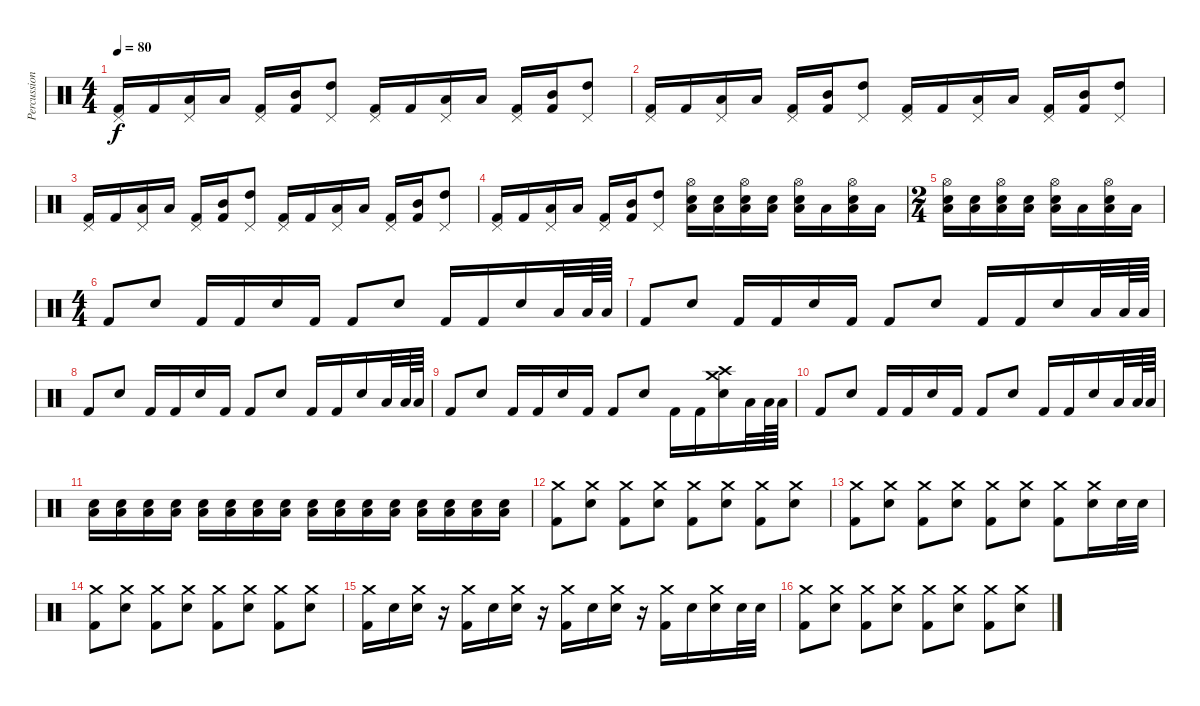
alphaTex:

\track ("Percussions" "Percussion") {instrument percussion}
\staff {score}
\articulation defaults
\ts (4 4)
\tempo 80
\clef neutral
\ks c
("Pedal Hi-Hat (hit)" "Kick (hit) 2").16{dy f} "Kick (hit) 2".16 ("Pedal Hi-Hat (hit)" "Low Tom (hit)").16 "Low Tom (hit)".16 ("Pedal Hi-Hat (hit)" "Kick (hit) 2").16 ("Mid Tom (hit)" "Kick (hit) 2").16 ("Pedal Hi-Hat (hit)" "High Tom (hit)").8 ("Pedal Hi-Hat (hit)" "Kick (hit) 2").16 "Kick (hit) 2".16 ("Pedal Hi-Hat (hit)" "Low Tom (hit)").16 "Low Tom (hit)".16 ("Pedal Hi-Hat (hit)" "Kick (hit) 2").16 ("Mid Tom (hit)" "Kick (hit) 2").16 ("Pedal Hi-Hat (hit)" "High Tom (hit)").8 |
("Pedal Hi-Hat (hit)" "Kick (hit) 2").16 "Kick (hit) 2".16 ("Pedal Hi-Hat (hit)" "Low Tom (hit)").16 "Low Tom (hit)".16 ("Pedal Hi-Hat (hit)" "Kick (hit) 2").16 ("Mid Tom (hit)" "Kick (hit) 2").16 ("Pedal Hi-Hat (hit)" "High Tom (hit)").8 ("Pedal Hi-Hat (hit)" "Kick (hit) 2").16 "Kick (hit) 2".16 ("Pedal Hi-Hat (hit)" "Low Tom (hit)").16 "Low Tom (hit)".16 ("Pedal Hi-Hat (hit)" "Kick (hit) 2").16 ("Mid Tom (hit)" "Kick (hit) 2").16 ("Pedal Hi-Hat (hit)" "High Tom (hit)").8 |
("Pedal Hi-Hat (hit)" "Kick (hit) 2").16 "Kick (hit) 2".16 ("Pedal Hi-Hat (hit)" "Low Tom (hit)").16 "Low Tom (hit)".16 ("Pedal Hi-Hat (hit)" "Kick (hit) 2").16 ("Mid Tom (hit)" "Kick (hit) 2").16 ("Pedal Hi-Hat (hit)" "High Tom (hit)").8 ("Pedal Hi-Hat (hit)" "Kick (hit) 2").16 "Kick (hit) 2".16 ("Pedal Hi-Hat (hit)" "Low Tom (hit)").16 "Low Tom (hit)".16 ("Pedal Hi-Hat (hit)" "Kick (hit) 2").16 ("Mid Tom (hit)" "Kick (hit) 2").16 ("Pedal Hi-Hat (hit)" "High Tom (hit)").8 |
("Pedal Hi-Hat (hit)" "Kick (hit) 2").16 "Kick (hit) 2".16 ("Pedal Hi-Hat (hit)" "Low Tom (hit)").16 "Low Tom (hit)".16 ("Pedal Hi-Hat (hit)" "Kick (hit) 2").16 ("Mid Tom (hit)" "Kick (hit) 2").16 ("Pedal Hi-Hat (hit)" "High Tom (hit)").8 ("Hi-Hat (open)" "Electric Snare (hit)" "Low Tom (hit)").16 ("Electric Snare (hit)" "Low Tom (hit)").16 ("Hi-Hat (open)" "Electric Snare (hit)" "Low Tom (hit)").16 ("Electric Snare (hit)" "Low Tom (hit)").16 ("Hi-Hat (open)" "Electric Snare (hit)" "Low Tom (hit)").16 "Low Tom (hit)".16 ("Hi-Hat (open)" "Electric Snare (hit)" "Low Tom (hit)").16 "Low Tom (hit)".16 |
\ts (2 4)
("Hi-Hat (open)" "Electric Snare (hit)" "Low Tom (hit)").16 ("Electric Snare (hit)" "Low Tom (hit)").16 ("Hi-Hat (open)" "Electric Snare (hit)" "Low Tom (hit)").16 ("Electric Snare (hit)" "Low Tom (hit)").16 ("Hi-Hat (open)" "Electric Snare (hit)" "Low Tom (hit)").16 "Low Tom (hit)".16 ("Hi-Hat (open)" "Electric Snare (hit)" "Low Tom (hit)").16 "Low Tom (hit)".16 |
\ts (4 4)
"Kick (hit) 2".8 "Electric Snare (hit)".8 "Kick (hit) 2".16 "Kick (hit) 2".16 "Electric Snare (hit)".16 "Kick (hit) 2".16 "Kick (hit) 2".8 "Electric Snare (hit)".8 "Kick (hit) 2".16 "Kick (hit) 2".16 "Electric Snare (hit)".16 "Low Tom (hit)".32 "Low Tom (hit)".64 "Low Tom (hit)".64 |
"Kick (hit) 2".8 "Electric Snare (hit)".8 "Kick (hit) 2".16 "Kick (hit) 2".16 "Electric Snare (hit)".16 "Kick (hit) 2".16 "Kick (hit) 2".8 "Electric Snare (hit)".8 "Kick (hit) 2".16 "Kick (hit) 2".16 "Electric Snare (hit)".16 "Low Tom (hit)".32 "Low Tom (hit)".64 "Low Tom (hit)".64 |
"Kick (hit) 2".8 "Electric Snare (hit)".8 "Kick (hit) 2".16 "Kick (hit) 2".16 "Electric Snare (hit)".16 "Kick (hit) 2".16 "Kick (hit) 2".8 "Electric Snare (hit)".8 "Kick (hit) 2".16 "Kick (hit) 2".16 "Electric Snare (hit)".16 "Low Tom (hit)".32 "Low Tom (hit)".64 "Low Tom (hit)".64 |
"Kick (hit) 2".8 "Electric Snare (hit)".8 "Kick (hit) 2".16 "Kick (hit) 2".16 "Electric Snare (hit)".16 "Kick (hit) 2".16 "Kick (hit) 2".8 "Electric Snare (hit)".8 "Kick (hit) 2".16 "Kick (hit) 2".16 ("Crash medium (hit)" "Crash high (hit)" "Electric Snare (hit)").16 "Low Tom (hit)".32 "Low Tom (hit)".64 "Low Tom (hit)".64 |
"Kick (hit) 2".8 "Electric Snare (hit)".8 "Kick (hit) 2".16 "Kick (hit) 2".16 "Electric Snare (hit)".16 "Kick (hit) 2".16 "Kick (hit) 2".8 "Electric Snare (hit)".8 "Kick (hit) 2".16 "Kick (hit) 2".16 "Electric Snare (hit)".16 "Low Tom (hit)".32 "Low Tom (hit)".64 "Low Tom (hit)".64 |
("Low Tom (hit)" "Electric Snare (hit)").16 ("Low Tom (hit)" "Electric Snare (hit)").16 ("Low Tom (hit)" "Electric Snare (hit)").16 ("Low Tom (hit)" "Electric Snare (hit)").16 ("Low Tom (hit)" "Electric Snare (hit)").16 ("Low Tom (hit)" "Electric Snare (hit)").16 ("Low Tom (hit)" "Electric Snare (hit)").16 ("Low Tom (hit)" "Electric Snare (hit)").16 ("Low Tom (hit)" "Electric Snare (hit)").16 ("Low Tom (hit)" "Electric Snare (hit)").16 ("Low Tom (hit)" "Electric Snare (hit)").16 ("Low Tom (hit)" "Electric Snare (hit)").16 ("Low Tom (hit)" "Electric Snare (hit)").16 ("Low Tom (hit)" "Electric Snare (hit)").16 ("Low Tom (hit)" "Electric Snare (hit)").16 ("Low Tom (hit)" "Electric Snare (hit)").16 |
("Crash medium (hit)" "Kick (hit) 2").8 ("Crash medium (hit)" "Electric Snare (hit)").8 ("Crash medium (hit)" "Kick (hit) 2").8 ("Crash medium (hit)" "Electric Snare (hit)").8 ("Crash medium (hit)" "Kick (hit) 2").8 ("Crash medium (hit)" "Electric Snare (hit)").8 ("Crash medium (hit)" "Kick (hit) 2").8 ("Crash medium (hit)" "Electric Snare (hit)").8 |
("Crash medium (hit)" "Kick (hit) 2").8 ("Crash medium (hit)" "Electric Snare (hit)").8 ("Crash medium (hit)" "Kick (hit) 2").8 ("Crash medium (hit)" "Electric Snare (hit)").8 ("Crash medium (hit)" "Kick (hit) 2").8 ("Crash medium (hit)" "Electric Snare (hit)").8 ("Crash medium (hit)" "Kick (hit) 2").8 ("Crash medium (hit)" "Electric Snare (hit)").16 "Electric Snare (hit)".32 "Electric Snare (hit)".32 |
("Crash medium (hit)" "Kick (hit) 2").8 ("Crash medium (hit)" "Electric Snare (hit)").8 ("Crash medium (hit)" "Kick (hit) 2").8 ("Crash medium (hit)" "Electric Snare (hit)").8 ("Crash medium (hit)" "Kick (hit) 2").8 ("Crash medium (hit)" "Electric Snare (hit)").8 ("Crash medium (hit)" "Kick (hit) 2").8 ("Crash medium (hit)" "Electric Snare (hit)").8 |
("Crash medium (hit)" "Kick (hit) 2").16 "Electric Snare (hit)".16 ("Crash medium (hit)" "Electric Snare (hit)").16 r.16 ("Crash medium (hit)" "Kick (hit) 2").16 "Electric Snare (hit)".16 ("Crash medium (hit)" "Electric Snare (hit)").16 r.16 ("Crash medium (hit)" "Kick (hit) 2").16 "Electric Snare (hit)".16 ("Crash medium (hit)" "Electric Snare (hit)").16 r.16 ("Crash medium (hit)" "Kick (hit) 2").16 "Electric Snare (hit)".16 ("Crash medium (hit)" "Electric Snare (hit)").16 "Electric Snare (hit)".32 "Electric Snare (hit)".32 |
("Crash medium (hit)" "Kick (hit) 2").8 ("Crash medium (hit)" "Electric Snare (hit)").8 ("Crash medium (hit)" "Kick (hit) 2").8 ("Crash medium (hit)" "Electric Snare (hit)").8 ("Crash medium (hit)" "Kick (hit) 2").8 ("Crash medium (hit)" "Electric Snare (hit)").8 ("Crash medium (hit)" "Kick (hit) 2").8 ("Crash medium (hit)" "Electric Snare (hit)").8
